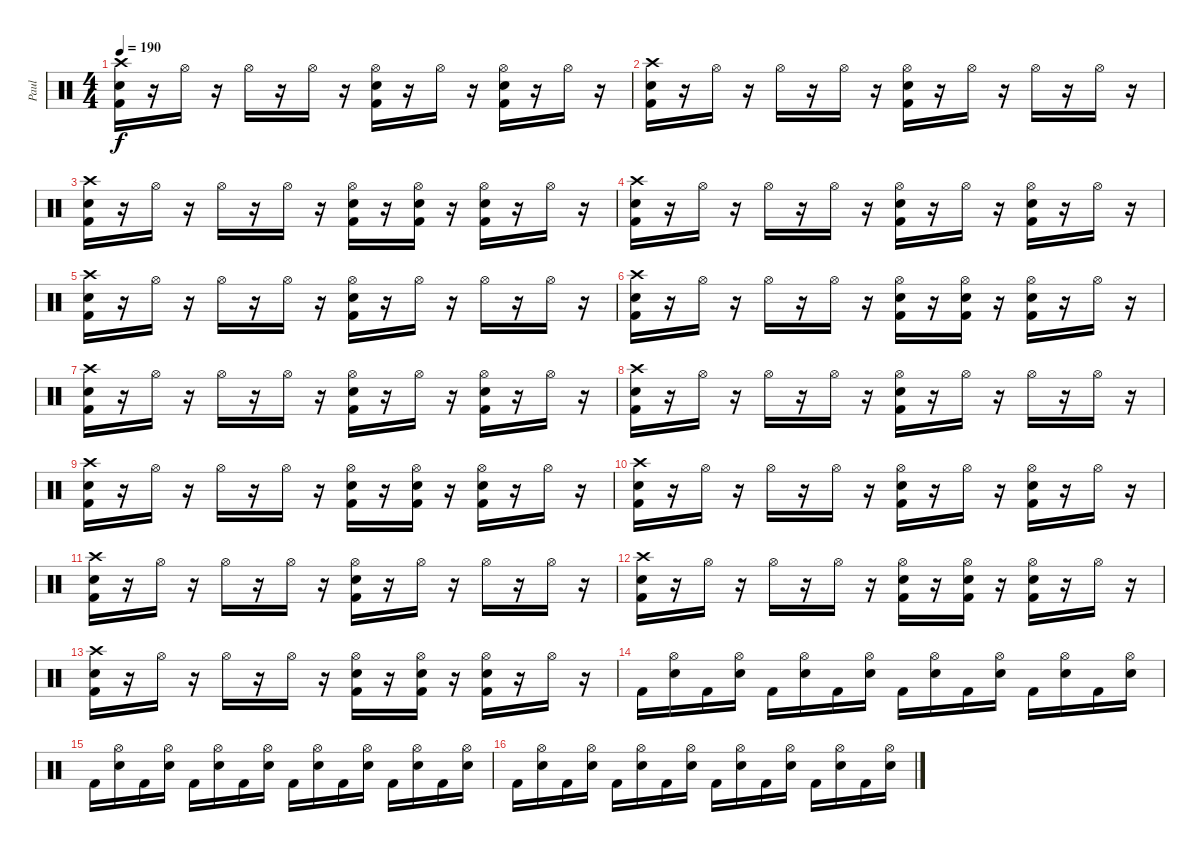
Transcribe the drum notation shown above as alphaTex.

\track ("Paul" "Paul") {instrument percussion}
\staff {score}
\articulation defaults
\ts (4 4)
\tempo 190
\clef neutral
\ks c
("Crash high (hit)" "Snare (hit) 2" "Kick (hit) 2").16{dy f} r.16 "Hi-Hat (open)".16 r.16 "Hi-Hat (open)".16 r.16 "Hi-Hat (open)".16 r.16 ("Hi-Hat (open)" "Snare (hit) 2" "Kick (hit) 2").16 r.16 "Hi-Hat (open)".16 r.16 ("Hi-Hat (open)" "Snare (hit) 2" "Kick (hit) 2").16 r.16 "Hi-Hat (open)".16 r.16 |
("Crash high (hit)" "Snare (hit) 2" "Kick (hit) 2").16 r.16 "Hi-Hat (open)".16 r.16 "Hi-Hat (open)".16 r.16 "Hi-Hat (open)".16 r.16 ("Hi-Hat (open)" "Snare (hit) 2" "Kick (hit) 2").16 r.16 "Hi-Hat (open)".16 r.16 "Hi-Hat (open)".16 r.16 "Hi-Hat (open)".16 r.16 |
("Crash high (hit)" "Snare (hit) 2" "Kick (hit) 2").16 r.16 "Hi-Hat (open)".16 r.16 "Hi-Hat (open)".16 r.16 "Hi-Hat (open)".16 r.16 ("Hi-Hat (open)" "Snare (hit) 2" "Kick (hit) 2").16 r.16 ("Hi-Hat (open)" "Snare (hit) 2" "Kick (hit) 2").16 r.16 ("Hi-Hat (open)" "Snare (hit) 2" "Kick (hit) 2").16 r.16 "Hi-Hat (open)".16 r.16 |
("Crash high (hit)" "Snare (hit) 2" "Kick (hit) 2").16 r.16 "Hi-Hat (open)".16 r.16 "Hi-Hat (open)".16 r.16 "Hi-Hat (open)".16 r.16 ("Hi-Hat (open)" "Snare (hit) 2" "Kick (hit) 2").16 r.16 "Hi-Hat (open)".16 r.16 ("Hi-Hat (open)" "Snare (hit) 2" "Kick (hit) 2").16 r.16 "Hi-Hat (open)".16 r.16 |
("Crash high (hit)" "Snare (hit) 2" "Kick (hit) 2").16 r.16 "Hi-Hat (open)".16 r.16 "Hi-Hat (open)".16 r.16 "Hi-Hat (open)".16 r.16 ("Hi-Hat (open)" "Snare (hit) 2" "Kick (hit) 2").16 r.16 "Hi-Hat (open)".16 r.16 "Hi-Hat (open)".16 r.16 "Hi-Hat (open)".16 r.16 |
("Crash high (hit)" "Snare (hit) 2" "Kick (hit) 2").16 r.16 "Hi-Hat (open)".16 r.16 "Hi-Hat (open)".16 r.16 "Hi-Hat (open)".16 r.16 ("Hi-Hat (open)" "Snare (hit) 2" "Kick (hit) 2").16 r.16 ("Hi-Hat (open)" "Snare (hit) 2" "Kick (hit) 2").16 r.16 ("Hi-Hat (open)" "Snare (hit) 2" "Kick (hit) 2").16 r.16 "Hi-Hat (open)".16 r.16 |
("Crash high (hit)" "Snare (hit) 2" "Kick (hit) 2").16 r.16 "Hi-Hat (open)".16 r.16 "Hi-Hat (open)".16 r.16 "Hi-Hat (open)".16 r.16 ("Hi-Hat (open)" "Snare (hit) 2" "Kick (hit) 2").16 r.16 "Hi-Hat (open)".16 r.16 ("Hi-Hat (open)" "Snare (hit) 2" "Kick (hit) 2").16 r.16 "Hi-Hat (open)".16 r.16 |
("Crash high (hit)" "Snare (hit) 2" "Kick (hit) 2").16 r.16 "Hi-Hat (open)".16 r.16 "Hi-Hat (open)".16 r.16 "Hi-Hat (open)".16 r.16 ("Hi-Hat (open)" "Snare (hit) 2" "Kick (hit) 2").16 r.16 "Hi-Hat (open)".16 r.16 "Hi-Hat (open)".16 r.16 "Hi-Hat (open)".16 r.16 |
("Crash high (hit)" "Snare (hit) 2" "Kick (hit) 2").16 r.16 "Hi-Hat (open)".16 r.16 "Hi-Hat (open)".16 r.16 "Hi-Hat (open)".16 r.16 ("Hi-Hat (open)" "Snare (hit) 2" "Kick (hit) 2").16 r.16 ("Hi-Hat (open)" "Snare (hit) 2" "Kick (hit) 2").16 r.16 ("Hi-Hat (open)" "Snare (hit) 2" "Kick (hit) 2").16 r.16 "Hi-Hat (open)".16 r.16 |
("Crash high (hit)" "Snare (hit) 2" "Kick (hit) 2").16 r.16 "Hi-Hat (open)".16 r.16 "Hi-Hat (open)".16 r.16 "Hi-Hat (open)".16 r.16 ("Hi-Hat (open)" "Snare (hit) 2" "Kick (hit) 2").16 r.16 "Hi-Hat (open)".16 r.16 ("Hi-Hat (open)" "Snare (hit) 2" "Kick (hit) 2").16 r.16 "Hi-Hat (open)".16 r.16 |
("Crash high (hit)" "Snare (hit) 2" "Kick (hit) 2").16 r.16 "Hi-Hat (open)".16 r.16 "Hi-Hat (open)".16 r.16 "Hi-Hat (open)".16 r.16 ("Hi-Hat (open)" "Snare (hit) 2" "Kick (hit) 2").16 r.16 "Hi-Hat (open)".16 r.16 "Hi-Hat (open)".16 r.16 "Hi-Hat (open)".16 r.16 |
("Crash high (hit)" "Snare (hit) 2" "Kick (hit) 2").16 r.16 "Hi-Hat (open)".16 r.16 "Hi-Hat (open)".16 r.16 "Hi-Hat (open)".16 r.16 ("Hi-Hat (open)" "Snare (hit) 2" "Kick (hit) 2").16 r.16 ("Hi-Hat (open)" "Snare (hit) 2" "Kick (hit) 2").16 r.16 ("Hi-Hat (open)" "Snare (hit) 2" "Kick (hit) 2").16 r.16 "Hi-Hat (open)".16 r.16 |
("Crash high (hit)" "Snare (hit) 2" "Kick (hit) 2").16 r.16 "Hi-Hat (open)".16 r.16 "Hi-Hat (open)".16 r.16 "Hi-Hat (open)".16 r.16 ("Hi-Hat (open)" "Snare (hit) 2" "Kick (hit) 2").16 r.16 ("Hi-Hat (open)" "Snare (hit) 2" "Kick (hit) 2").16 r.16 ("Hi-Hat (open)" "Snare (hit) 2" "Kick (hit) 2").16 r.16 "Hi-Hat (open)".16 r.16 |
"Kick (hit) 2".16 ("Hi-Hat (open)" "Snare (hit) 2").16 "Kick (hit) 2".16 ("Hi-Hat (open)" "Snare (hit) 2").16 "Kick (hit) 2".16 ("Hi-Hat (open)" "Snare (hit) 2").16 "Kick (hit) 2".16 ("Hi-Hat (open)" "Snare (hit) 2").16 "Kick (hit) 2".16 ("Hi-Hat (open)" "Snare (hit) 2").16 "Kick (hit) 2".16 ("Hi-Hat (open)" "Snare (hit) 2").16 "Kick (hit) 2".16 ("Hi-Hat (open)" "Snare (hit) 2").16 "Kick (hit) 2".16 ("Hi-Hat (open)" "Snare (hit) 2").16 |
"Kick (hit) 2".16 ("Hi-Hat (open)" "Snare (hit) 2").16 "Kick (hit) 2".16 ("Hi-Hat (open)" "Snare (hit) 2").16 "Kick (hit) 2".16 ("Hi-Hat (open)" "Snare (hit) 2").16 "Kick (hit) 2".16 ("Hi-Hat (open)" "Snare (hit) 2").16 "Kick (hit) 2".16 ("Hi-Hat (open)" "Snare (hit) 2").16 "Kick (hit) 2".16 ("Hi-Hat (open)" "Snare (hit) 2").16 "Kick (hit) 2".16 ("Hi-Hat (open)" "Snare (hit) 2").16 "Kick (hit) 2".16 ("Hi-Hat (open)" "Snare (hit) 2").16 |
"Kick (hit) 2".16 ("Hi-Hat (open)" "Snare (hit) 2").16 "Kick (hit) 2".16 ("Hi-Hat (open)" "Snare (hit) 2").16 "Kick (hit) 2".16 ("Hi-Hat (open)" "Snare (hit) 2").16 "Kick (hit) 2".16 ("Hi-Hat (open)" "Snare (hit) 2").16 "Kick (hit) 2".16 ("Hi-Hat (open)" "Snare (hit) 2").16 "Kick (hit) 2".16 ("Hi-Hat (open)" "Snare (hit) 2").16 "Kick (hit) 2".16 ("Hi-Hat (open)" "Snare (hit) 2").16 "Kick (hit) 2".16 ("Hi-Hat (open)" "Snare (hit) 2").16
